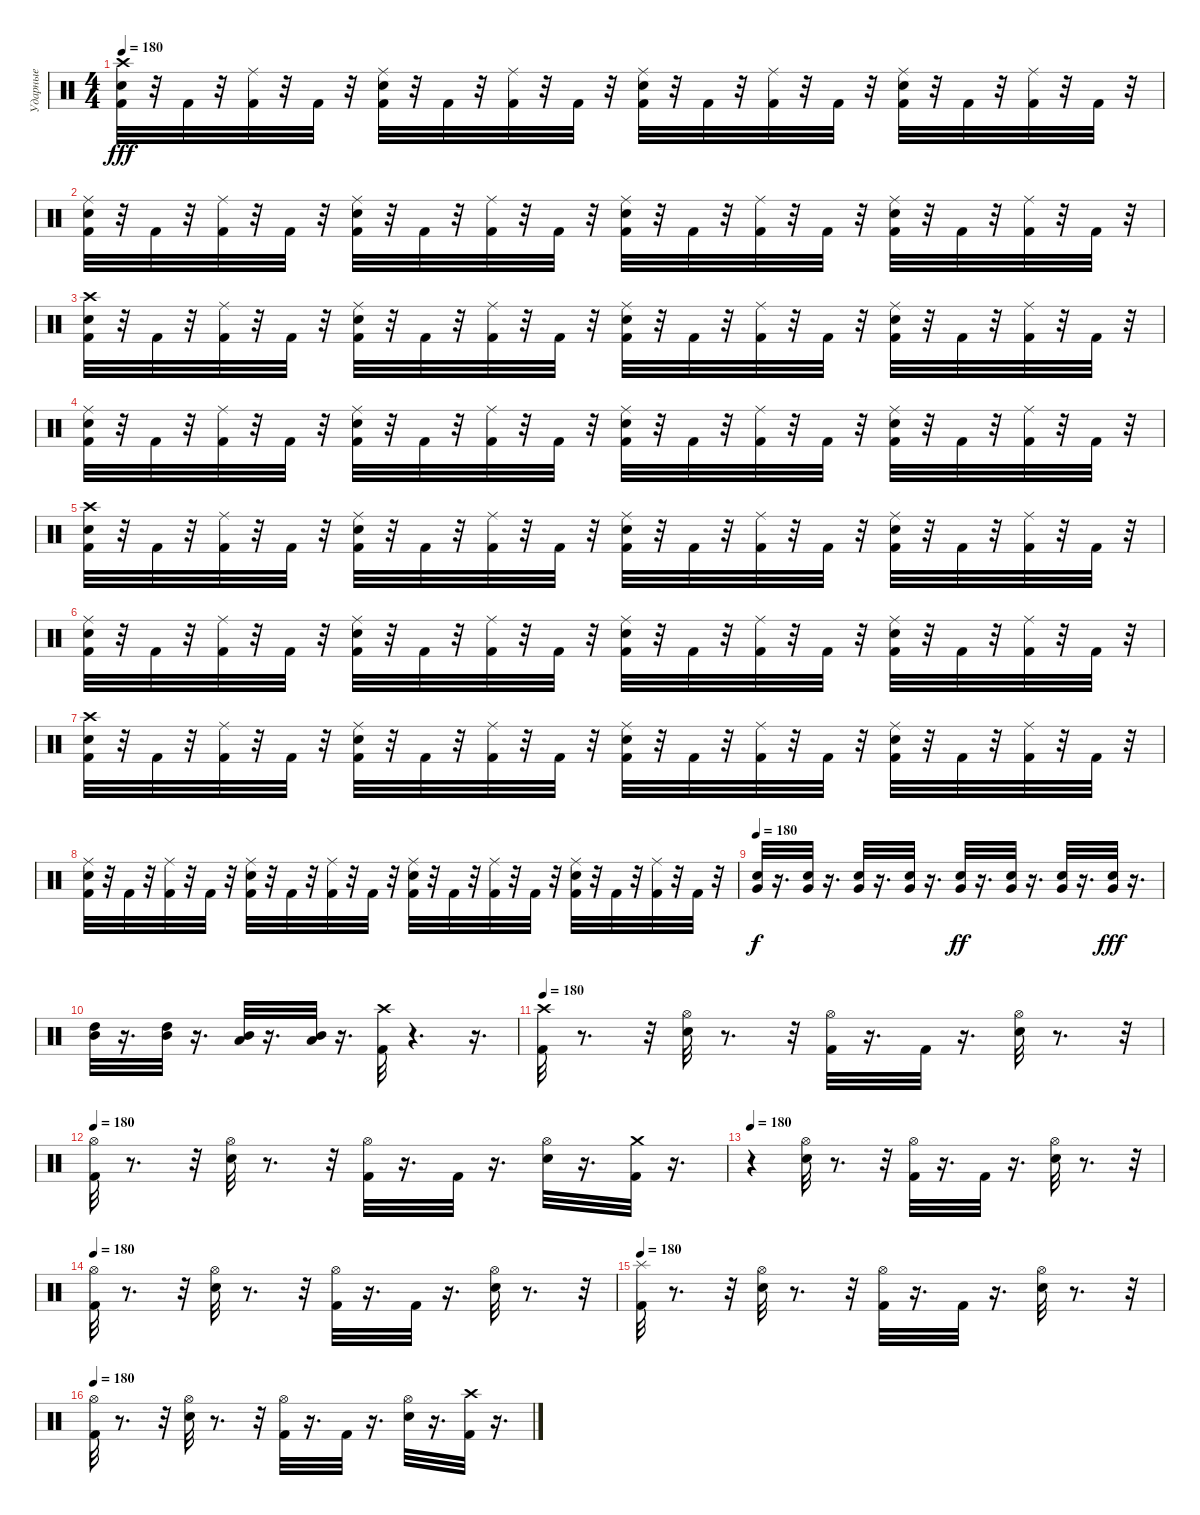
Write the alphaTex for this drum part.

\track ("Ударные" "Ударные") {instrument percussion}
\staff {score}
\articulation defaults
\ts (4 4)
\tempo 180
\clef neutral
\ks c
("Kick (hit) 2" "Crash high (hit)" "Snare (hit) 2").32{dy fff} r.32 "Kick (hit) 2".32 r.32 ("Ride (middle)" "Kick (hit) 2").32 r.32 "Kick (hit) 2".32 r.32 ("Snare (hit) 2" "Kick (hit) 2" "Ride (middle)").32 r.32 "Kick (hit) 2".32 r.32 ("Kick (hit) 2" "Ride (middle)").32 r.32 "Kick (hit) 2".32 r.32 ("Snare (hit) 2" "Kick (hit) 2" "Ride (middle)").32 r.32 "Kick (hit) 2".32 r.32 ("Kick (hit) 2" "Ride (middle)").32 r.32 "Kick (hit) 2".32 r.32 ("Ride (middle)" "Kick (hit) 2" "Snare (hit) 2").32 r.32 "Kick (hit) 2".32 r.32 ("Kick (hit) 2" "Ride (middle)").32 r.32 "Kick (hit) 2".32 r.32 |
("Snare (hit) 2" "Kick (hit) 2" "Ride (middle)").32 r.32 "Kick (hit) 2".32 r.32 ("Kick (hit) 2" "Ride (middle)").32 r.32 "Kick (hit) 2".32 r.32 ("Snare (hit) 2" "Kick (hit) 2" "Ride (middle)").32 r.32 "Kick (hit) 2".32 r.32 ("Kick (hit) 2" "Ride (middle)").32 r.32 "Kick (hit) 2".32 r.32 ("Snare (hit) 2" "Kick (hit) 2" "Ride (middle)").32 r.32 "Kick (hit) 2".32 r.32 ("Kick (hit) 2" "Ride (middle)").32 r.32 "Kick (hit) 2".32 r.32 ("Snare (hit) 2" "Kick (hit) 2" "Ride (middle)").32 r.32 "Kick (hit) 2".32 r.32 ("Kick (hit) 2" "Ride (middle)").32 r.32 "Kick (hit) 2".32 r.32 |
("Kick (hit) 2" "Crash high (hit)" "Snare (hit) 2").32 r.32 "Kick (hit) 2".32 r.32 ("Ride (middle)" "Kick (hit) 2").32 r.32 "Kick (hit) 2".32 r.32 ("Snare (hit) 2" "Kick (hit) 2" "Ride (middle)").32 r.32 "Kick (hit) 2".32 r.32 ("Kick (hit) 2" "Ride (middle)").32 r.32 "Kick (hit) 2".32 r.32 ("Snare (hit) 2" "Kick (hit) 2" "Ride (middle)").32 r.32 "Kick (hit) 2".32 r.32 ("Kick (hit) 2" "Ride (middle)").32 r.32 "Kick (hit) 2".32 r.32 ("Ride (middle)" "Kick (hit) 2" "Snare (hit) 2").32 r.32 "Kick (hit) 2".32 r.32 ("Kick (hit) 2" "Ride (middle)").32 r.32 "Kick (hit) 2".32 r.32 |
("Snare (hit) 2" "Kick (hit) 2" "Ride (middle)").32 r.32 "Kick (hit) 2".32 r.32 ("Kick (hit) 2" "Ride (middle)").32 r.32 "Kick (hit) 2".32 r.32 ("Snare (hit) 2" "Kick (hit) 2" "Ride (middle)").32 r.32 "Kick (hit) 2".32 r.32 ("Kick (hit) 2" "Ride (middle)").32 r.32 "Kick (hit) 2".32 r.32 ("Snare (hit) 2" "Kick (hit) 2" "Ride (middle)").32 r.32 "Kick (hit) 2".32 r.32 ("Kick (hit) 2" "Ride (middle)").32 r.32 "Kick (hit) 2".32 r.32 ("Snare (hit) 2" "Kick (hit) 2" "Ride (middle)").32 r.32 "Kick (hit) 2".32 r.32 ("Kick (hit) 2" "Ride (middle)").32 r.32 "Kick (hit) 2".32 r.32 |
("Kick (hit) 2" "Crash high (hit)" "Snare (hit) 2").32 r.32 "Kick (hit) 2".32 r.32 ("Ride (middle)" "Kick (hit) 2").32 r.32 "Kick (hit) 2".32 r.32 ("Snare (hit) 2" "Kick (hit) 2" "Ride (middle)").32 r.32 "Kick (hit) 2".32 r.32 ("Kick (hit) 2" "Ride (middle)").32 r.32 "Kick (hit) 2".32 r.32 ("Snare (hit) 2" "Kick (hit) 2" "Ride (middle)").32 r.32 "Kick (hit) 2".32 r.32 ("Kick (hit) 2" "Ride (middle)").32 r.32 "Kick (hit) 2".32 r.32 ("Ride (middle)" "Kick (hit) 2" "Snare (hit) 2").32 r.32 "Kick (hit) 2".32 r.32 ("Kick (hit) 2" "Ride (middle)").32 r.32 "Kick (hit) 2".32 r.32 |
("Snare (hit) 2" "Kick (hit) 2" "Ride (middle)").32 r.32 "Kick (hit) 2".32 r.32 ("Kick (hit) 2" "Ride (middle)").32 r.32 "Kick (hit) 2".32 r.32 ("Snare (hit) 2" "Kick (hit) 2" "Ride (middle)").32 r.32 "Kick (hit) 2".32 r.32 ("Kick (hit) 2" "Ride (middle)").32 r.32 "Kick (hit) 2".32 r.32 ("Snare (hit) 2" "Kick (hit) 2" "Ride (middle)").32 r.32 "Kick (hit) 2".32 r.32 ("Kick (hit) 2" "Ride (middle)").32 r.32 "Kick (hit) 2".32 r.32 ("Snare (hit) 2" "Kick (hit) 2" "Ride (middle)").32 r.32 "Kick (hit) 2".32 r.32 ("Kick (hit) 2" "Ride (middle)").32 r.32 "Kick (hit) 2".32 r.32 |
("Kick (hit) 2" "Crash high (hit)" "Snare (hit) 2").32 r.32 "Kick (hit) 2".32 r.32 ("Ride (middle)" "Kick (hit) 2").32 r.32 "Kick (hit) 2".32 r.32 ("Snare (hit) 2" "Kick (hit) 2" "Ride (middle)").32 r.32 "Kick (hit) 2".32 r.32 ("Kick (hit) 2" "Ride (middle)").32 r.32 "Kick (hit) 2".32 r.32 ("Snare (hit) 2" "Kick (hit) 2" "Ride (middle)").32 r.32 "Kick (hit) 2".32 r.32 ("Kick (hit) 2" "Ride (middle)").32 r.32 "Kick (hit) 2".32 r.32 ("Ride (middle)" "Kick (hit) 2" "Snare (hit) 2").32 r.32 "Kick (hit) 2".32 r.32 ("Kick (hit) 2" "Ride (middle)").32 r.32 "Kick (hit) 2".32 r.32 |
("Snare (hit) 2" "Kick (hit) 2" "Ride (middle)").32 r.32 "Kick (hit) 2".32 r.32 ("Kick (hit) 2" "Ride (middle)").32 r.32 "Kick (hit) 2".32 r.32 ("Snare (hit) 2" "Kick (hit) 2" "Ride (middle)").32 r.32 "Kick (hit) 2".32 r.32 ("Kick (hit) 2" "Ride (middle)").32 r.32 "Kick (hit) 2".32 r.32 ("Snare (hit) 2" "Kick (hit) 2" "Ride (middle)").32 r.32 "Kick (hit) 2".32 r.32 ("Kick (hit) 2" "Ride (middle)").32 r.32 "Kick (hit) 2".32 r.32 ("Snare (hit) 2" "Kick (hit) 2" "Ride (middle)").32 r.32 "Kick (hit) 2".32 r.32 ("Kick (hit) 2" "Ride (middle)").32 r.32 "Kick (hit) 2".32 r.32 |
\tempo 180
("Very Low Tom (hit)" "Snare (hit) 2").32{dy f} r.16{d} ("Very Low Tom (hit)" "Snare (hit) 2").32 r.16{d} ("Very Low Tom (hit)" "Snare (hit) 2").32 r.16{d} ("Very Low Tom (hit)" "Snare (hit) 2").32 r.16{d} ("Very Low Tom (hit)" "Snare (hit) 2").32{dy ff} r.16{d} ("Very Low Tom (hit)" "Snare (hit) 2").32 r.16{d} ("Very Low Tom (hit)" "Snare (hit) 2").32 r.16{d} ("Very Low Tom (hit)" "Snare (hit) 2").32{dy fff} r.16{d} |
("Mid Tom (hit)" "High Tom (hit)").32 r.16{d} ("Mid Tom (hit)" "High Tom (hit)").32 r.16{d} ("Low Tom (hit)" "Mid Tom (hit)").32 r.16{d} ("Low Tom (hit)" "Mid Tom (hit)").32 r.16{d} ("Crash high (hit)" "Kick (hit) 2").32 r.4{d} r.16{d} |
\tempo 180
("Kick (hit) 2" "Crash high (hit)").32 r.8{d} r.32 ("Hi-Hat (open)" "Snare (hit) 2").32 r.8{d} r.32 ("Kick (hit) 2" "Hi-Hat (open)").32 r.16{d} "Kick (hit) 2".32 r.16{d} ("Snare (hit) 2" "Hi-Hat (open)").32 r.8{d} r.32 |
\tempo 180
("Hi-Hat (open)" "Kick (hit) 2").32 r.8{d} r.32 ("Snare (hit) 2" "Hi-Hat (open)").32 r.8{d} r.32 ("Kick (hit) 2" "Hi-Hat (open)").32 r.16{d} "Kick (hit) 2".32 r.16{d} ("Hi-Hat (open)" "Snare (hit) 2").32 r.16{d} ("Kick (hit) 2" "Crash medium (hit)").32 r.16{d} |
\tempo 180
r.4 ("Snare (hit) 2" "Hi-Hat (open)").32 r.8{d} r.32 ("Kick (hit) 2" "Hi-Hat (open)").32 r.16{d} "Kick (hit) 2".32 r.16{d} ("Hi-Hat (open)" "Snare (hit) 2").32 r.8{d} r.32 |
\tempo 180
("Kick (hit) 2" "Hi-Hat (open)").32 r.8{d} r.32 ("Hi-Hat (open)" "Snare (hit) 2").32 r.8{d} r.32 ("Kick (hit) 2" "Hi-Hat (open)").32 r.16{d} "Kick (hit) 2".32 r.16{d} ("Hi-Hat (open)" "Snare (hit) 2").32 r.8{d} r.32 |
\tempo 180
("Kick (hit) 2" "Splash (hit)").32 r.8{d} r.32 ("Hi-Hat (open)" "Snare (hit) 2").32 r.8{d} r.32 ("Hi-Hat (open)" "Kick (hit) 2").32 r.16{d} "Kick (hit) 2".32 r.16{d} ("Snare (hit) 2" "Hi-Hat (open)").32 r.8{d} r.32 |
\tempo 180
("Kick (hit) 2" "Hi-Hat (open)").32 r.8{d} r.32 ("Snare (hit) 2" "Hi-Hat (open)").32 r.8{d} r.32 ("Hi-Hat (open)" "Kick (hit) 2").32 r.16{d} "Kick (hit) 2".32 r.16{d} ("Snare (hit) 2" "Hi-Hat (open)").32 r.16{d} ("Crash high (hit)" "Kick (hit) 2").32 r.16{d}
